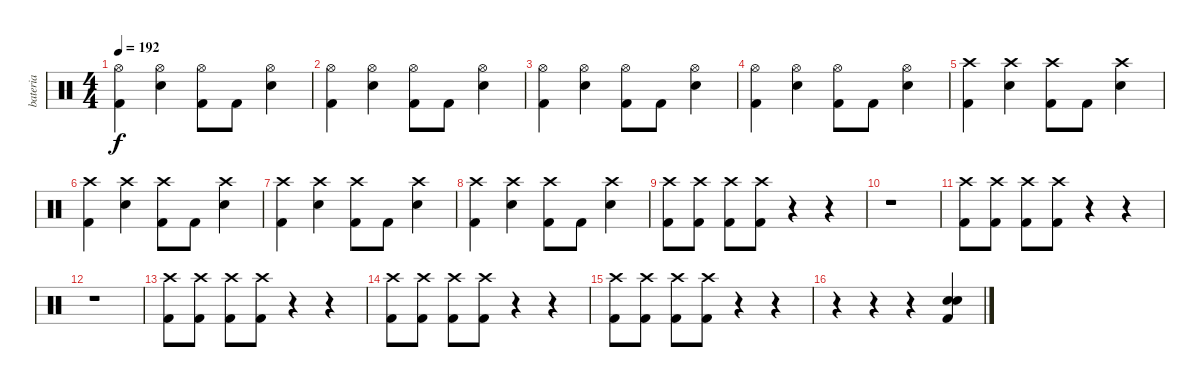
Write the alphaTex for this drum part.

\track ("bateria" "bateria") {instrument percussion}
\staff {score}
\articulation defaults
\ts (4 4)
\tempo 192
\clef neutral
\ks c
("Hi-Hat (open)" "Kick (hit) 2").4{dy f} ("Hi-Hat (open)" "Snare (hit) 2").4 ("Hi-Hat (open)" "Kick (hit) 2").8 "Kick (hit) 2".8 ("Hi-Hat (open)" "Snare (hit) 2").4 |
("Hi-Hat (open)" "Kick (hit) 2").4 ("Hi-Hat (open)" "Snare (hit) 2").4 ("Hi-Hat (open)" "Kick (hit) 2").8 "Kick (hit) 2".8 ("Hi-Hat (open)" "Snare (hit) 2").4 |
("Hi-Hat (open)" "Kick (hit) 2").4 ("Hi-Hat (open)" "Snare (hit) 2").4 ("Hi-Hat (open)" "Kick (hit) 2").8 "Kick (hit) 2".8 ("Hi-Hat (open)" "Snare (hit) 2").4 |
("Hi-Hat (open)" "Kick (hit) 2").4 ("Hi-Hat (open)" "Snare (hit) 2").4 ("Hi-Hat (open)" "Kick (hit) 2").8 "Kick (hit) 2".8 ("Hi-Hat (open)" "Snare (hit) 2").4 |
("Crash high (hit)" "Kick (hit) 2").4 ("Crash high (hit)" "Snare (hit) 2").4 ("Crash high (hit)" "Kick (hit) 2").8 "Kick (hit) 2".8 ("Crash high (hit)" "Snare (hit) 2").4 |
("Crash high (hit)" "Kick (hit) 2").4 ("Crash high (hit)" "Snare (hit) 2").4 ("Crash high (hit)" "Kick (hit) 2").8 "Kick (hit) 2".8 ("Crash high (hit)" "Snare (hit) 2").4 |
("Crash high (hit)" "Kick (hit) 2").4 ("Crash high (hit)" "Snare (hit) 2").4 ("Crash high (hit)" "Kick (hit) 2").8 "Kick (hit) 2".8 ("Crash high (hit)" "Snare (hit) 2").4 |
("Crash high (hit)" "Kick (hit) 2").4 ("Crash high (hit)" "Snare (hit) 2").4 ("Crash high (hit)" "Kick (hit) 2").8 "Kick (hit) 2".8 ("Crash high (hit)" "Snare (hit) 2").4 |
("Crash high (hit)" "Kick (hit) 2").8 ("Crash high (hit)" "Kick (hit) 2").8 ("Crash high (hit)" "Kick (hit) 2").8 ("Crash high (hit)" "Kick (hit) 2").8 r.4 r.4 |
r.1 |
("Crash high (hit)" "Kick (hit) 2").8 ("Crash high (hit)" "Kick (hit) 2").8 ("Crash high (hit)" "Kick (hit) 2").8 ("Crash high (hit)" "Kick (hit) 2").8 r.4 r.4 |
r.1 |
("Crash high (hit)" "Kick (hit) 2").8 ("Crash high (hit)" "Kick (hit) 2").8 ("Crash high (hit)" "Kick (hit) 2").8 ("Crash high (hit)" "Kick (hit) 2").8 r.4 r.4 |
("Crash high (hit)" "Kick (hit) 2").8 ("Crash high (hit)" "Kick (hit) 2").8 ("Crash high (hit)" "Kick (hit) 2").8 ("Crash high (hit)" "Kick (hit) 2").8 r.4 r.4 |
("Crash high (hit)" "Kick (hit) 2").8 ("Crash high (hit)" "Kick (hit) 2").8 ("Crash high (hit)" "Kick (hit) 2").8 ("Crash high (hit)" "Kick (hit) 2").8 r.4 r.4 |
r.4 r.4 r.4 ("Electric Snare (hit)" "Snare (hit) 2" "Kick (hit) 2").4
